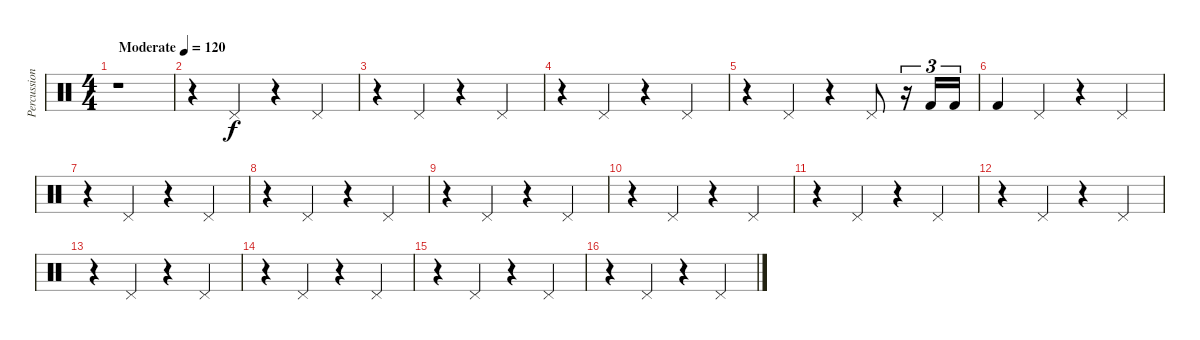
\track ("Percussion" "Percussion") {instrument percussion}
\staff {score}
\articulation defaults
\ts (4 4)
\tempo (120 "Moderate")
\clef neutral
\ks c
r.1{dy f} |
r.4 "Pedal Hi-Hat (hit)".4 r.4 "Pedal Hi-Hat (hit)".4 |
r.4 "Pedal Hi-Hat (hit)".4 r.4 "Pedal Hi-Hat (hit)".4 |
r.4 "Pedal Hi-Hat (hit)".4 r.4 "Pedal Hi-Hat (hit)".4 |
r.4 "Pedal Hi-Hat (hit)".4 r.4 "Pedal Hi-Hat (hit)".8 r.16{tu (3 2)} "Kick (hit) 2".16{tu (3 2)} "Kick (hit) 2".16{tu (3 2)} |
"Kick (hit) 2".4 "Pedal Hi-Hat (hit)".4 r.4 "Pedal Hi-Hat (hit)".4 |
r.4 "Pedal Hi-Hat (hit)".4 r.4 "Pedal Hi-Hat (hit)".4 |
r.4 "Pedal Hi-Hat (hit)".4 r.4 "Pedal Hi-Hat (hit)".4 |
r.4 "Pedal Hi-Hat (hit)".4 r.4 "Pedal Hi-Hat (hit)".4 |
r.4 "Pedal Hi-Hat (hit)".4 r.4 "Pedal Hi-Hat (hit)".4 |
r.4 "Pedal Hi-Hat (hit)".4 r.4 "Pedal Hi-Hat (hit)".4 |
r.4 "Pedal Hi-Hat (hit)".4 r.4 "Pedal Hi-Hat (hit)".4 |
r.4 "Pedal Hi-Hat (hit)".4 r.4 "Pedal Hi-Hat (hit)".4 |
r.4 "Pedal Hi-Hat (hit)".4 r.4 "Pedal Hi-Hat (hit)".4 |
r.4 "Pedal Hi-Hat (hit)".4 r.4 "Pedal Hi-Hat (hit)".4 |
r.4 "Pedal Hi-Hat (hit)".4 r.4 "Pedal Hi-Hat (hit)".4
